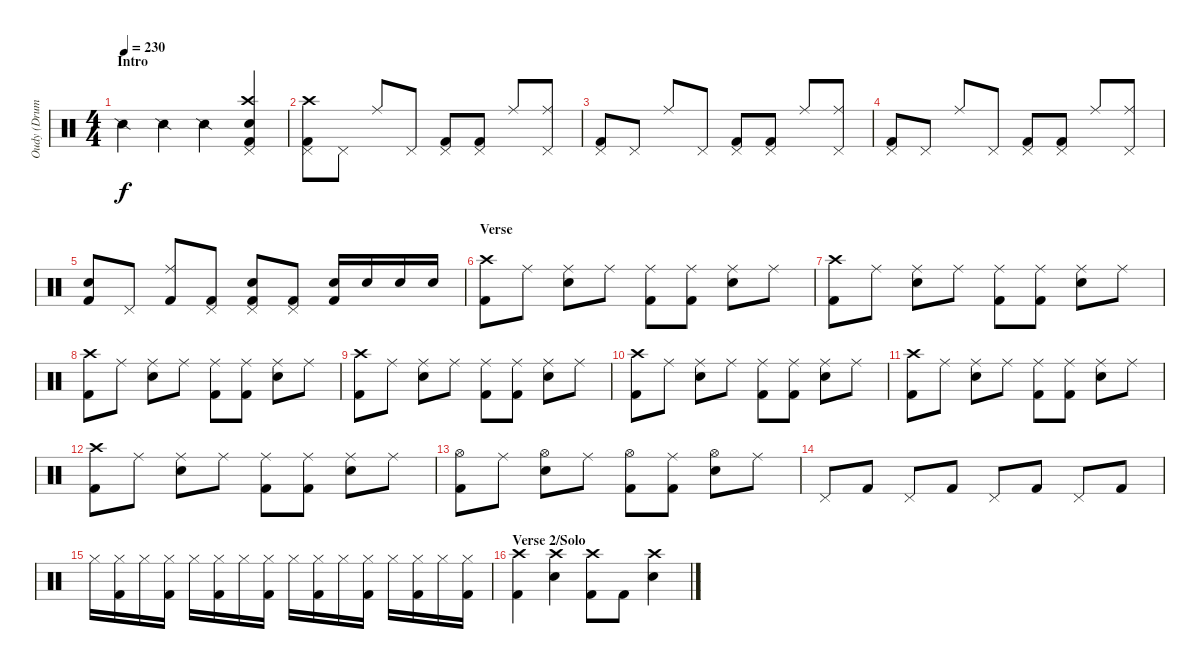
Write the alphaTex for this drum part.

\track ("Oudy (Drums) (See F5)" "Oudy (Drum") {instrument percussion}
\staff {score}
\articulation defaults
\ts (4 4)
\section ("" "Intro")
\tempo 230
\tempo 95
\tempo 230
\clef neutral
\ks c "Snare (side stick) 2".4{dy f} "Snare (side stick) 2".4 "Snare (side stick) 2".4
("Electric Snare (hit)" "Crash high (hit)" "Pedal Hi-Hat (hit)" "Kick (hit) 2").4 |
("Pedal Hi-Hat (hit)" "Kick (hit) 2" "Crash high (hit)").8 "Pedal Hi-Hat (hit)".8 "Ride (middle)".8 "Pedal Hi-Hat (hit)".8 ("Pedal Hi-Hat (hit)" "Kick (hit) 2").8 ("Pedal Hi-Hat (hit)" "Kick (hit) 2").8 "Ride (middle)".8 ("Pedal Hi-Hat (hit)" "Ride (middle)").8 |
("Pedal Hi-Hat (hit)" "Kick (hit) 2").8 "Pedal Hi-Hat (hit)".8 "Ride (middle)".8 "Pedal Hi-Hat (hit)".8 ("Pedal Hi-Hat (hit)" "Kick (hit) 2").8 ("Pedal Hi-Hat (hit)" "Kick (hit) 2").8 "Ride (middle)".8 ("Pedal Hi-Hat (hit)" "Ride (middle)").8 |
("Pedal Hi-Hat (hit)" "Kick (hit) 2").8 "Pedal Hi-Hat (hit)".8 "Ride (middle)".8 "Pedal Hi-Hat (hit)".8 ("Pedal Hi-Hat (hit)" "Kick (hit) 2").8 ("Pedal Hi-Hat (hit)" "Kick (hit) 2").8 "Ride (middle)".8 ("Pedal Hi-Hat (hit)" "Ride (middle)").8 |
("Electric Snare (hit)" "Kick (hit) 2").8 "Pedal Hi-Hat (hit)".8 ("Kick (hit) 2" "Ride (middle)").8 ("Pedal Hi-Hat (hit)" "Kick (hit) 2").8 ("Pedal Hi-Hat (hit)" "Kick (hit) 2" "Electric Snare (hit)").8 ("Pedal Hi-Hat (hit)" "Kick (hit) 2").8 ("Kick (hit) 2" "Electric Snare (hit)").16 "Electric Snare (hit)".16 "Electric Snare (hit)".16 "Electric Snare (hit)".16 |
\section ("" "Verse")
("Crash high (hit)" "Kick (hit) 2").8 "Ride (middle)".8 ("Ride (middle)" "Electric Snare (hit)").8 "Ride (middle)".8 ("Ride (middle)" "Kick (hit) 2").8 ("Ride (middle)" "Kick (hit) 2").8 ("Ride (middle)" "Electric Snare (hit)").8 "Ride (middle)".8 |
("Crash high (hit)" "Kick (hit) 2").8 "Ride (middle)".8 ("Ride (middle)" "Electric Snare (hit)").8 "Ride (middle)".8 ("Ride (middle)" "Kick (hit) 2").8 ("Ride (middle)" "Kick (hit) 2").8 ("Ride (middle)" "Electric Snare (hit)").8 "Ride (middle)".8 |
("Crash high (hit)" "Kick (hit) 2").8 "Ride (middle)".8 ("Ride (middle)" "Electric Snare (hit)").8 "Ride (middle)".8 ("Ride (middle)" "Kick (hit) 2").8 ("Ride (middle)" "Kick (hit) 2").8 ("Ride (middle)" "Electric Snare (hit)").8 "Ride (middle)".8 |
("Crash high (hit)" "Kick (hit) 2").8 "Ride (middle)".8 ("Ride (middle)" "Electric Snare (hit)").8 "Ride (middle)".8 ("Ride (middle)" "Kick (hit) 2").8 ("Ride (middle)" "Kick (hit) 2").8 ("Ride (middle)" "Electric Snare (hit)").8 "Ride (middle)".8 |
("Crash high (hit)" "Kick (hit) 2").8 "Ride (middle)".8 ("Ride (middle)" "Electric Snare (hit)").8 "Ride (middle)".8 ("Ride (middle)" "Kick (hit) 2").8 ("Ride (middle)" "Kick (hit) 2").8 ("Ride (middle)" "Electric Snare (hit)").8 "Ride (middle)".8 |
("Crash high (hit)" "Kick (hit) 2").8 "Ride (middle)".8 ("Ride (middle)" "Electric Snare (hit)").8 "Ride (middle)".8 ("Ride (middle)" "Kick (hit) 2").8 ("Ride (middle)" "Kick (hit) 2").8 ("Ride (middle)" "Electric Snare (hit)").8 "Ride (middle)".8 |
("Crash high (hit)" "Kick (hit) 2").8 "Ride (middle)".8 ("Ride (middle)" "Electric Snare (hit)").8 "Ride (middle)".8 ("Ride (middle)" "Kick (hit) 2").8 ("Ride (middle)" "Kick (hit) 2").8 ("Ride (middle)" "Electric Snare (hit)").8 "Ride (middle)".8 |
("Hi-Hat (open)" "Kick (hit) 2").8 "Ride (middle)".8 ("Hi-Hat (open)" "Electric Snare (hit)").8 "Ride (middle)".8 ("Hi-Hat (open)" "Kick (hit) 2").8 ("Ride (middle)" "Kick (hit) 2").8 ("Hi-Hat (open)" "Electric Snare (hit)").8 "Ride (middle)".8 |
"Pedal Hi-Hat (hit)".8 "Kick (hit) 2".8 "Pedal Hi-Hat (hit)".8 "Kick (hit) 2".8 "Pedal Hi-Hat (hit)".8 "Kick (hit) 2".8 "Pedal Hi-Hat (hit)".8 "Kick (hit) 2".8 |
"Hi-Hat (closed)".16 ("Hi-Hat (closed)" "Kick (hit) 2").16 "Hi-Hat (closed)".16 ("Hi-Hat (closed)" "Kick (hit) 2").16 "Hi-Hat (closed)".16 ("Hi-Hat (closed)" "Kick (hit) 2").16 "Hi-Hat (closed)".16 ("Hi-Hat (closed)" "Kick (hit) 2").16 "Hi-Hat (closed)".16 ("Hi-Hat (closed)" "Kick (hit) 2").16 "Hi-Hat (closed)".16 ("Hi-Hat (closed)" "Kick (hit) 2").16 "Hi-Hat (closed)".16 ("Hi-Hat (closed)" "Kick (hit) 2").16 "Hi-Hat (closed)".16 ("Hi-Hat (closed)" "Kick (hit) 2").16 |
\section ("" "Verse 2/Solo")
("Crash high (hit)" "Kick (hit) 2").4 ("Crash high (hit)" "Electric Snare (hit)").4 ("Crash high (hit)" "Kick (hit) 2").8 "Kick (hit) 2".8 ("Crash high (hit)" "Electric Snare (hit)").4
